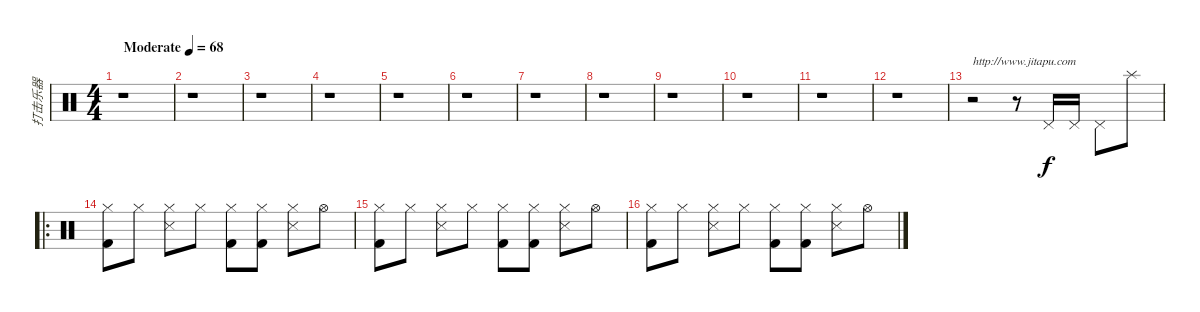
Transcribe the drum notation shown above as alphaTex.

\track ("打击乐器" "打击乐器") {instrument percussion}
\staff {score}
\articulation defaults
\ts (4 4)
\tempo (68 "Moderate")
\clef neutral
\ks c
r.1{dy f} |
r.1 |
r.1 |
r.1 |
r.1 |
r.1 |
r.1 |
r.1 |
r.1 |
r.1 |
r.1 |
r.1 |
r.2{txt "http://www.jitapu.com"} r.8 "Pedal Hi-Hat (hit)".16 "Pedal Hi-Hat (hit)".16 "Pedal Hi-Hat (hit)".8 "Splash (hit)".8 |
\ro
("Hi-Hat (closed)" "Kick (hit) 2").8 "Hi-Hat (closed)".8 ("Hi-Hat (closed)" "Snare (side stick) 3").8 "Hi-Hat (closed)".8 ("Hi-Hat (closed)" "Kick (hit) 2").8 ("Hi-Hat (closed)" "Kick (hit) 2").8 ("Hi-Hat (closed)" "Snare (side stick) 3").8 "Hi-Hat (open)".8 |
("Hi-Hat (closed)" "Kick (hit) 2").8 "Hi-Hat (closed)".8 ("Hi-Hat (closed)" "Snare (side stick) 3").8 "Hi-Hat (closed)".8 ("Hi-Hat (closed)" "Kick (hit) 2").8 ("Hi-Hat (closed)" "Kick (hit) 2").8 ("Hi-Hat (closed)" "Snare (side stick) 3").8 "Hi-Hat (open)".8 |
("Hi-Hat (closed)" "Kick (hit) 2").8 "Hi-Hat (closed)".8 ("Hi-Hat (closed)" "Snare (side stick) 3").8 "Hi-Hat (closed)".8 ("Hi-Hat (closed)" "Kick (hit) 2").8 ("Hi-Hat (closed)" "Kick (hit) 2").8 ("Hi-Hat (closed)" "Snare (side stick) 3").8 "Hi-Hat (open)".8
